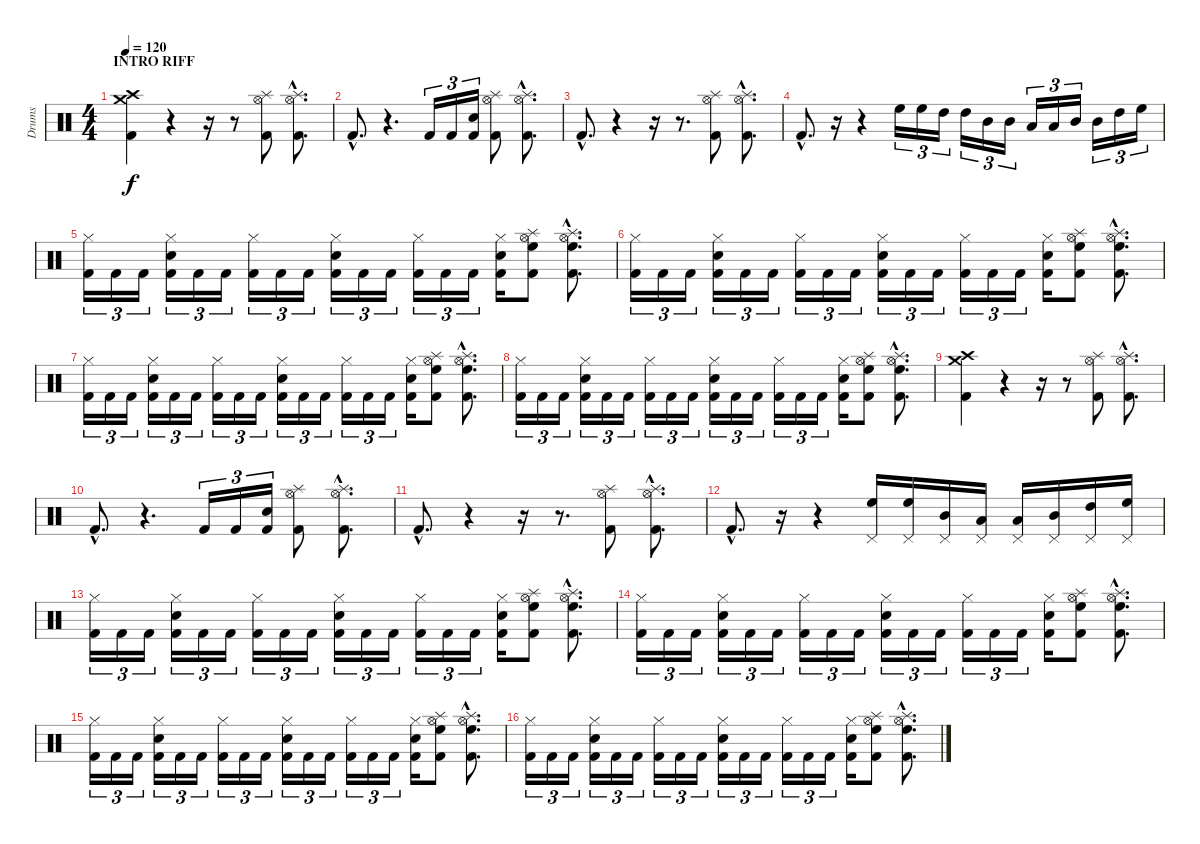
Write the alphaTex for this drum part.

\track ("Drums" "Drums") {instrument percussion}
\staff {score}
\articulation defaults
\ts (4 4)
\section ("" "INTRO RIFF")
\tempo 120
\clef neutral
\ks c
("Crash medium (hit)" "Crash high (hit)" "Kick (hit) 2").4{dy f} r.4 r.16 r.8 ("Splash (hit)" "Hi-Hat (open)" "Kick (hit) 2").8 ("Splash (hit)"{hac} "Hi-Hat (open)"{hac} "Kick (hit) 2"{hac}).8{d} |
"Kick (hit) 2"{hac}.8{d} r.4{d} "Kick (hit) 2".16{tu (3 2)} "Kick (hit) 2".16{tu (3 2)} ("Electric Snare (hit)" "Kick (hit) 2").16{tu (3 2)} ("Splash (hit)" "Hi-Hat (open)" "Kick (hit) 2").8 ("Splash (hit)"{hac} "Hi-Hat (open)"{hac} "Kick (hit) 2"{hac}).8{d} |
"Kick (hit) 2"{hac}.8{d} r.4 r.16 r.8{d} ("Splash (hit)" "Hi-Hat (open)" "Kick (hit) 2").8 ("Splash (hit)"{hac} "Hi-Hat (open)"{hac} "Kick (hit) 2"{hac}).8{d} |
"Kick (hit) 2"{hac}.8{d} r.16 r.4 "High Floor Tom (hit)".16{tu (3 2)} "High Floor Tom (hit)".16{tu (3 2)} "High Tom (hit)".16{tu (3 2)} "High Tom (hit)".16{tu (3 2)} "Mid Tom (hit)".16{tu (3 2)} "Mid Tom (hit)".16{tu (3 2)} "Low Tom (hit)".16{tu (3 2)} "Low Tom (hit)".16{tu (3 2)} "Mid Tom (hit)".16{tu (3 2)} "Mid Tom (hit)".16{tu (3 2)} "High Tom (hit)".16{tu (3 2)} "High Floor Tom (hit)".16{tu (3 2)} |
("Hi-Hat (closed)" "Kick (hit) 2").16{tu (3 2)} "Kick (hit) 2".16{tu (3 2)} "Kick (hit) 2".16{tu (3 2)} ("Hi-Hat (closed)" "Electric Snare (hit)" "Kick (hit) 2").16{tu (3 2)} "Kick (hit) 2".16{tu (3 2)} "Kick (hit) 2".16{tu (3 2)} ("Hi-Hat (closed)" "Kick (hit) 2").16{tu (3 2)} "Kick (hit) 2".16{tu (3 2)} "Kick (hit) 2".16{tu (3 2)} ("Hi-Hat (closed)" "Electric Snare (hit)" "Kick (hit) 2").16{tu (3 2)} "Kick (hit) 2".16{tu (3 2)} "Kick (hit) 2".16{tu (3 2)} ("Hi-Hat (closed)" "Kick (hit) 2").16{tu (3 2)} "Kick (hit) 2".16{tu (3 2)} "Kick (hit) 2".16{tu (3 2)} ("Hi-Hat (closed)" "Electric Snare (hit)" "Kick (hit) 2").16 ("Splash (hit)" "Hi-Hat (open)" "High Floor Tom (hit)" "Kick (hit) 2").8 ("Splash (hit)"{hac} "Hi-Hat (open)"{hac} "High Floor Tom (hit)"{hac} "Kick (hit) 2"{hac}).8{d} |
("Hi-Hat (closed)" "Kick (hit) 2").16{tu (3 2)} "Kick (hit) 2".16{tu (3 2)} "Kick (hit) 2".16{tu (3 2)} ("Hi-Hat (closed)" "Electric Snare (hit)" "Kick (hit) 2").16{tu (3 2)} "Kick (hit) 2".16{tu (3 2)} "Kick (hit) 2".16{tu (3 2)} ("Hi-Hat (closed)" "Kick (hit) 2").16{tu (3 2)} "Kick (hit) 2".16{tu (3 2)} "Kick (hit) 2".16{tu (3 2)} ("Hi-Hat (closed)" "Electric Snare (hit)" "Kick (hit) 2").16{tu (3 2)} "Kick (hit) 2".16{tu (3 2)} "Kick (hit) 2".16{tu (3 2)} ("Hi-Hat (closed)" "Kick (hit) 2").16{tu (3 2)} "Kick (hit) 2".16{tu (3 2)} "Kick (hit) 2".16{tu (3 2)} ("Hi-Hat (closed)" "Electric Snare (hit)" "Kick (hit) 2").16 ("Splash (hit)" "Hi-Hat (open)" "High Floor Tom (hit)" "Kick (hit) 2").8 ("Splash (hit)"{hac} "Hi-Hat (open)"{hac} "High Floor Tom (hit)"{hac} "Kick (hit) 2"{hac}).8{d} |
("Hi-Hat (closed)" "Kick (hit) 2").16{tu (3 2)} "Kick (hit) 2".16{tu (3 2)} "Kick (hit) 2".16{tu (3 2)} ("Hi-Hat (closed)" "Electric Snare (hit)" "Kick (hit) 2").16{tu (3 2)} "Kick (hit) 2".16{tu (3 2)} "Kick (hit) 2".16{tu (3 2)} ("Hi-Hat (closed)" "Kick (hit) 2").16{tu (3 2)} "Kick (hit) 2".16{tu (3 2)} "Kick (hit) 2".16{tu (3 2)} ("Hi-Hat (closed)" "Electric Snare (hit)" "Kick (hit) 2").16{tu (3 2)} "Kick (hit) 2".16{tu (3 2)} "Kick (hit) 2".16{tu (3 2)} ("Hi-Hat (closed)" "Kick (hit) 2").16{tu (3 2)} "Kick (hit) 2".16{tu (3 2)} "Kick (hit) 2".16{tu (3 2)} ("Hi-Hat (closed)" "Electric Snare (hit)" "Kick (hit) 2").16 ("Splash (hit)" "Hi-Hat (open)" "High Floor Tom (hit)" "Kick (hit) 2").8 ("Splash (hit)"{hac} "Hi-Hat (open)"{hac} "High Floor Tom (hit)"{hac} "Kick (hit) 2"{hac}).8{d} |
("Hi-Hat (closed)" "Kick (hit) 2").16{tu (3 2)} "Kick (hit) 2".16{tu (3 2)} "Kick (hit) 2".16{tu (3 2)} ("Hi-Hat (closed)" "Electric Snare (hit)" "Kick (hit) 2").16{tu (3 2)} "Kick (hit) 2".16{tu (3 2)} "Kick (hit) 2".16{tu (3 2)} ("Hi-Hat (closed)" "Kick (hit) 2").16{tu (3 2)} "Kick (hit) 2".16{tu (3 2)} "Kick (hit) 2".16{tu (3 2)} ("Hi-Hat (closed)" "Electric Snare (hit)" "Kick (hit) 2").16{tu (3 2)} "Kick (hit) 2".16{tu (3 2)} "Kick (hit) 2".16{tu (3 2)} ("Hi-Hat (closed)" "Kick (hit) 2").16{tu (3 2)} "Kick (hit) 2".16{tu (3 2)} "Kick (hit) 2".16{tu (3 2)} ("Hi-Hat (closed)" "Electric Snare (hit)" "Kick (hit) 2").16 ("Splash (hit)" "Hi-Hat (open)" "High Floor Tom (hit)" "Kick (hit) 2").8 ("Splash (hit)"{hac} "Hi-Hat (open)"{hac} "High Floor Tom (hit)"{hac} "Kick (hit) 2"{hac}).8{d} |
("Crash medium (hit)" "Crash high (hit)" "Kick (hit) 2").4 r.4 r.16 r.8 ("Splash (hit)" "Hi-Hat (open)" "Kick (hit) 2").8 ("Splash (hit)"{hac} "Hi-Hat (open)"{hac} "Kick (hit) 2"{hac}).8{d} |
"Kick (hit) 2"{hac}.8{d} r.4{d} "Kick (hit) 2".16{tu (3 2)} "Kick (hit) 2".16{tu (3 2)} ("Electric Snare (hit)" "Kick (hit) 2").16{tu (3 2)} ("Splash (hit)" "Hi-Hat (open)" "Kick (hit) 2").8 ("Splash (hit)"{hac} "Hi-Hat (open)"{hac} "Kick (hit) 2"{hac}).8{d} |
"Kick (hit) 2"{hac}.8{d} r.4 r.16 r.8{d} ("Splash (hit)" "Hi-Hat (open)" "Kick (hit) 2").8 ("Splash (hit)"{hac} "Hi-Hat (open)"{hac} "Kick (hit) 2"{hac}).8{d} |
"Kick (hit) 2"{hac}.8{d} r.16 r.4 ("Pedal Hi-Hat (hit)" "High Floor Tom (hit)").16 ("Pedal Hi-Hat (hit)" "High Floor Tom (hit)").16 ("Pedal Hi-Hat (hit)" "Mid Tom (hit)").16 ("Pedal Hi-Hat (hit)" "Low Tom (hit)").16 ("Pedal Hi-Hat (hit)" "Low Tom (hit)").16 ("Pedal Hi-Hat (hit)" "Mid Tom (hit)").16 ("Pedal Hi-Hat (hit)" "High Tom (hit)").16 ("Pedal Hi-Hat (hit)" "High Floor Tom (hit)").16 |
("Hi-Hat (closed)" "Kick (hit) 2").16{tu (3 2)} "Kick (hit) 2".16{tu (3 2)} "Kick (hit) 2".16{tu (3 2)} ("Hi-Hat (closed)" "Electric Snare (hit)" "Kick (hit) 2").16{tu (3 2)} "Kick (hit) 2".16{tu (3 2)} "Kick (hit) 2".16{tu (3 2)} ("Hi-Hat (closed)" "Kick (hit) 2").16{tu (3 2)} "Kick (hit) 2".16{tu (3 2)} "Kick (hit) 2".16{tu (3 2)} ("Hi-Hat (closed)" "Electric Snare (hit)" "Kick (hit) 2").16{tu (3 2)} "Kick (hit) 2".16{tu (3 2)} "Kick (hit) 2".16{tu (3 2)} ("Hi-Hat (closed)" "Kick (hit) 2").16{tu (3 2)} "Kick (hit) 2".16{tu (3 2)} "Kick (hit) 2".16{tu (3 2)} ("Hi-Hat (closed)" "Electric Snare (hit)" "Kick (hit) 2").16 ("Splash (hit)" "Hi-Hat (open)" "High Floor Tom (hit)" "Kick (hit) 2").8 ("Splash (hit)"{hac} "Hi-Hat (open)"{hac} "High Floor Tom (hit)"{hac} "Kick (hit) 2"{hac}).8{d} |
("Hi-Hat (closed)" "Kick (hit) 2").16{tu (3 2)} "Kick (hit) 2".16{tu (3 2)} "Kick (hit) 2".16{tu (3 2)} ("Hi-Hat (closed)" "Electric Snare (hit)" "Kick (hit) 2").16{tu (3 2)} "Kick (hit) 2".16{tu (3 2)} "Kick (hit) 2".16{tu (3 2)} ("Hi-Hat (closed)" "Kick (hit) 2").16{tu (3 2)} "Kick (hit) 2".16{tu (3 2)} "Kick (hit) 2".16{tu (3 2)} ("Hi-Hat (closed)" "Electric Snare (hit)" "Kick (hit) 2").16{tu (3 2)} "Kick (hit) 2".16{tu (3 2)} "Kick (hit) 2".16{tu (3 2)} ("Hi-Hat (closed)" "Kick (hit) 2").16{tu (3 2)} "Kick (hit) 2".16{tu (3 2)} "Kick (hit) 2".16{tu (3 2)} ("Hi-Hat (closed)" "Electric Snare (hit)" "Kick (hit) 2").16 ("Splash (hit)" "Hi-Hat (open)" "High Floor Tom (hit)" "Kick (hit) 2").8 ("Splash (hit)"{hac} "Hi-Hat (open)"{hac} "High Floor Tom (hit)"{hac} "Kick (hit) 2"{hac}).8{d} |
("Hi-Hat (closed)" "Kick (hit) 2").16{tu (3 2)} "Kick (hit) 2".16{tu (3 2)} "Kick (hit) 2".16{tu (3 2)} ("Hi-Hat (closed)" "Electric Snare (hit)" "Kick (hit) 2").16{tu (3 2)} "Kick (hit) 2".16{tu (3 2)} "Kick (hit) 2".16{tu (3 2)} ("Hi-Hat (closed)" "Kick (hit) 2").16{tu (3 2)} "Kick (hit) 2".16{tu (3 2)} "Kick (hit) 2".16{tu (3 2)} ("Hi-Hat (closed)" "Electric Snare (hit)" "Kick (hit) 2").16{tu (3 2)} "Kick (hit) 2".16{tu (3 2)} "Kick (hit) 2".16{tu (3 2)} ("Hi-Hat (closed)" "Kick (hit) 2").16{tu (3 2)} "Kick (hit) 2".16{tu (3 2)} "Kick (hit) 2".16{tu (3 2)} ("Hi-Hat (closed)" "Electric Snare (hit)" "Kick (hit) 2").16 ("Splash (hit)" "Hi-Hat (open)" "High Floor Tom (hit)" "Kick (hit) 2").8 ("Splash (hit)"{hac} "Hi-Hat (open)"{hac} "High Floor Tom (hit)"{hac} "Kick (hit) 2"{hac}).8{d} |
("Hi-Hat (closed)" "Kick (hit) 2").16{tu (3 2)} "Kick (hit) 2".16{tu (3 2)} "Kick (hit) 2".16{tu (3 2)} ("Hi-Hat (closed)" "Electric Snare (hit)" "Kick (hit) 2").16{tu (3 2)} "Kick (hit) 2".16{tu (3 2)} "Kick (hit) 2".16{tu (3 2)} ("Hi-Hat (closed)" "Kick (hit) 2").16{tu (3 2)} "Kick (hit) 2".16{tu (3 2)} "Kick (hit) 2".16{tu (3 2)} ("Hi-Hat (closed)" "Electric Snare (hit)" "Kick (hit) 2").16{tu (3 2)} "Kick (hit) 2".16{tu (3 2)} "Kick (hit) 2".16{tu (3 2)} ("Hi-Hat (closed)" "Kick (hit) 2").16{tu (3 2)} "Kick (hit) 2".16{tu (3 2)} "Kick (hit) 2".16{tu (3 2)} ("Hi-Hat (closed)" "Electric Snare (hit)" "Kick (hit) 2").16 ("Splash (hit)" "Hi-Hat (open)" "High Floor Tom (hit)" "Kick (hit) 2").8 ("Splash (hit)"{hac} "Hi-Hat (open)"{hac} "High Floor Tom (hit)"{hac} "Kick (hit) 2"{hac}).8{d}
